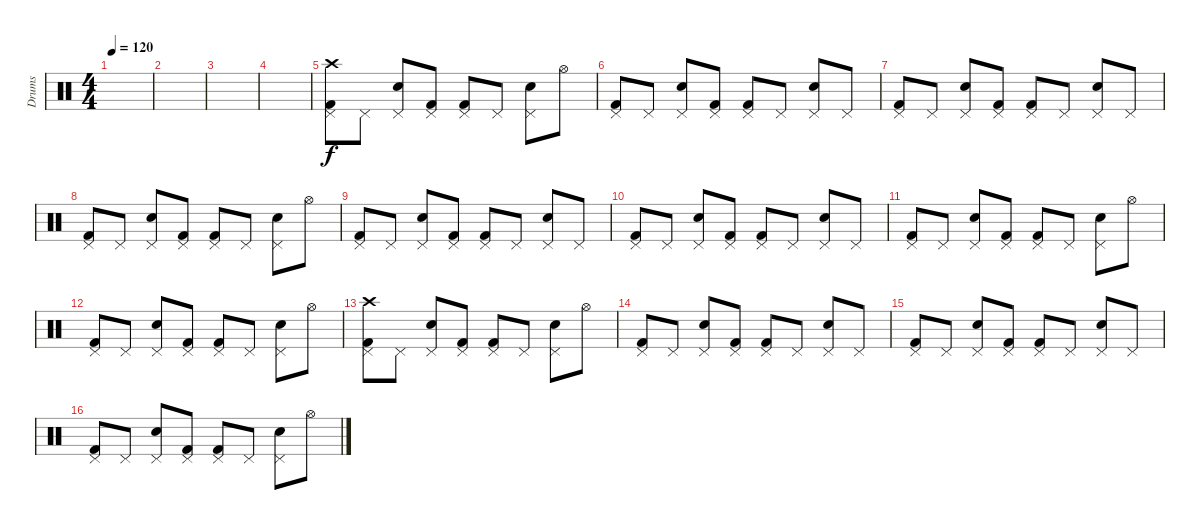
\track ("Drums" "Drums") {instrument percussion}
\staff {score}
\articulation defaults
\ts (4 4)
\tempo 120
\clef neutral
\ks c
|
|
|
|
("Crash high (hit)" "Pedal Hi-Hat (hit)" "Kick (hit) 2").8 "Pedal Hi-Hat (hit)".8 ("Pedal Hi-Hat (hit)" "Snare (hit) 2").8 ("Pedal Hi-Hat (hit)" "Kick (hit) 2").8 ("Pedal Hi-Hat (hit)" "Kick (hit) 2").8 "Pedal Hi-Hat (hit)".8 ("Pedal Hi-Hat (hit)" "Snare (hit) 2").8 "Hi-Hat (open)".8 |
("Pedal Hi-Hat (hit)" "Kick (hit) 2").8 "Pedal Hi-Hat (hit)".8 ("Pedal Hi-Hat (hit)" "Snare (hit) 2").8 ("Pedal Hi-Hat (hit)" "Kick (hit) 2").8 ("Pedal Hi-Hat (hit)" "Kick (hit) 2").8 "Pedal Hi-Hat (hit)".8 ("Pedal Hi-Hat (hit)" "Snare (hit) 2").8 "Pedal Hi-Hat (hit)".8 |
("Pedal Hi-Hat (hit)" "Kick (hit) 2").8 "Pedal Hi-Hat (hit)".8 ("Pedal Hi-Hat (hit)" "Snare (hit) 2").8 ("Pedal Hi-Hat (hit)" "Kick (hit) 2").8 ("Pedal Hi-Hat (hit)" "Kick (hit) 2").8 "Pedal Hi-Hat (hit)".8 ("Pedal Hi-Hat (hit)" "Snare (hit) 2").8 "Pedal Hi-Hat (hit)".8 |
("Pedal Hi-Hat (hit)" "Kick (hit) 2").8 "Pedal Hi-Hat (hit)".8 ("Pedal Hi-Hat (hit)" "Snare (hit) 2").8 ("Pedal Hi-Hat (hit)" "Kick (hit) 2").8 ("Pedal Hi-Hat (hit)" "Kick (hit) 2").8 "Pedal Hi-Hat (hit)".8 ("Pedal Hi-Hat (hit)" "Snare (hit) 2").8 "Hi-Hat (open)".8 |
("Pedal Hi-Hat (hit)" "Kick (hit) 2").8 "Pedal Hi-Hat (hit)".8 ("Pedal Hi-Hat (hit)" "Snare (hit) 2").8 ("Pedal Hi-Hat (hit)" "Kick (hit) 2").8 ("Pedal Hi-Hat (hit)" "Kick (hit) 2").8 "Pedal Hi-Hat (hit)".8 ("Pedal Hi-Hat (hit)" "Snare (hit) 2").8 "Pedal Hi-Hat (hit)".8 |
("Pedal Hi-Hat (hit)" "Kick (hit) 2").8 "Pedal Hi-Hat (hit)".8 ("Pedal Hi-Hat (hit)" "Snare (hit) 2").8 ("Pedal Hi-Hat (hit)" "Kick (hit) 2").8 ("Pedal Hi-Hat (hit)" "Kick (hit) 2").8 "Pedal Hi-Hat (hit)".8 ("Pedal Hi-Hat (hit)" "Snare (hit) 2").8 "Pedal Hi-Hat (hit)".8 |
("Pedal Hi-Hat (hit)" "Kick (hit) 2").8 "Pedal Hi-Hat (hit)".8 ("Pedal Hi-Hat (hit)" "Snare (hit) 2").8 ("Pedal Hi-Hat (hit)" "Kick (hit) 2").8 ("Pedal Hi-Hat (hit)" "Kick (hit) 2").8 "Pedal Hi-Hat (hit)".8 ("Pedal Hi-Hat (hit)" "Snare (hit) 2").8 "Hi-Hat (open)".8 |
("Pedal Hi-Hat (hit)" "Kick (hit) 2").8 "Pedal Hi-Hat (hit)".8 ("Pedal Hi-Hat (hit)" "Snare (hit) 2").8 ("Pedal Hi-Hat (hit)" "Kick (hit) 2").8 ("Pedal Hi-Hat (hit)" "Kick (hit) 2").8 "Pedal Hi-Hat (hit)".8 ("Pedal Hi-Hat (hit)" "Snare (hit) 2").8 "Hi-Hat (open)".8 |
("Crash high (hit)" "Pedal Hi-Hat (hit)" "Kick (hit) 2").8 "Pedal Hi-Hat (hit)".8 ("Pedal Hi-Hat (hit)" "Snare (hit) 2").8 ("Pedal Hi-Hat (hit)" "Kick (hit) 2").8 ("Pedal Hi-Hat (hit)" "Kick (hit) 2").8 "Pedal Hi-Hat (hit)".8 ("Pedal Hi-Hat (hit)" "Snare (hit) 2").8 "Hi-Hat (open)".8 |
("Pedal Hi-Hat (hit)" "Kick (hit) 2").8 "Pedal Hi-Hat (hit)".8 ("Pedal Hi-Hat (hit)" "Snare (hit) 2").8 ("Pedal Hi-Hat (hit)" "Kick (hit) 2").8 ("Pedal Hi-Hat (hit)" "Kick (hit) 2").8 "Pedal Hi-Hat (hit)".8 ("Pedal Hi-Hat (hit)" "Snare (hit) 2").8 "Pedal Hi-Hat (hit)".8 |
("Pedal Hi-Hat (hit)" "Kick (hit) 2").8 "Pedal Hi-Hat (hit)".8 ("Pedal Hi-Hat (hit)" "Snare (hit) 2").8 ("Pedal Hi-Hat (hit)" "Kick (hit) 2").8 ("Pedal Hi-Hat (hit)" "Kick (hit) 2").8 "Pedal Hi-Hat (hit)".8 ("Pedal Hi-Hat (hit)" "Snare (hit) 2").8 "Pedal Hi-Hat (hit)".8 |
("Pedal Hi-Hat (hit)" "Kick (hit) 2").8 "Pedal Hi-Hat (hit)".8 ("Pedal Hi-Hat (hit)" "Snare (hit) 2").8 ("Pedal Hi-Hat (hit)" "Kick (hit) 2").8 ("Pedal Hi-Hat (hit)" "Kick (hit) 2").8 "Pedal Hi-Hat (hit)".8 ("Pedal Hi-Hat (hit)" "Snare (hit) 2").8 "Hi-Hat (open)".8
